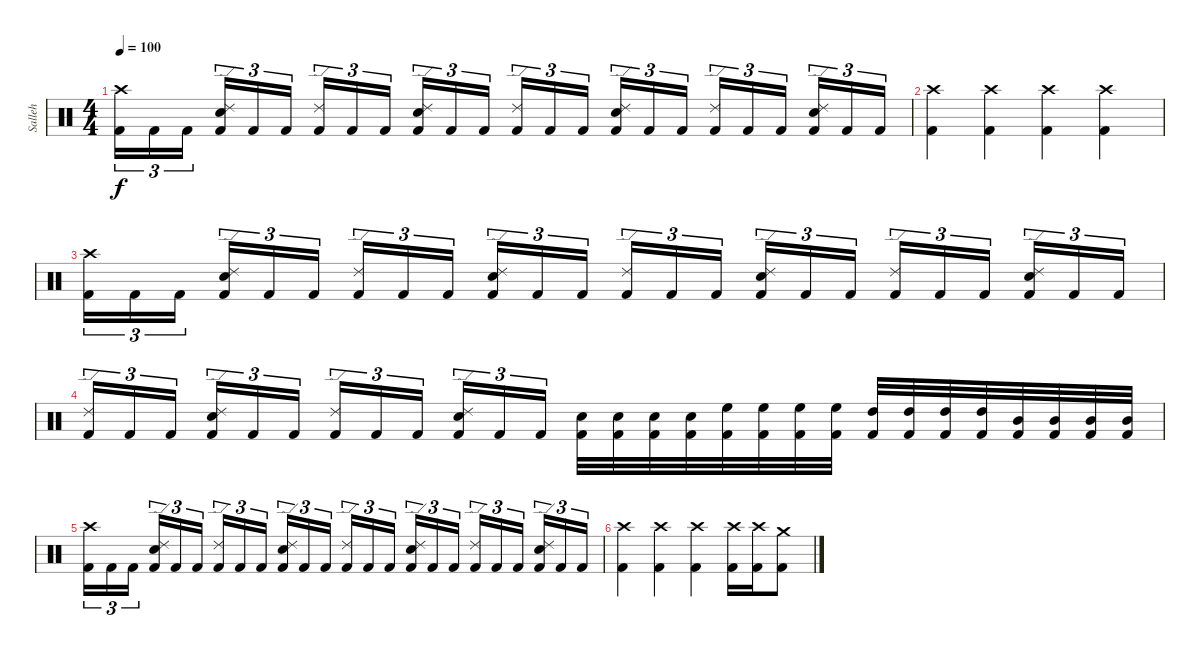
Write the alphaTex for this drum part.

\track ("Salleh" "Salleh") {instrument percussion}
\staff {score}
\articulation defaults
\ts (4 4)
\tempo 100
\clef neutral
\ks c
("Crash high (hit)" "Kick (hit) 2").16{tu (3 2) dy f} "Kick (hit) 2".16{tu (3 2)} "Kick (hit) 2".16{tu (3 2) beam splitsecondary} ("Ride (edge) 2" "Electric Snare (hit)" "Kick (hit) 2").16{tu (3 2)} "Kick (hit) 2".16{tu (3 2)} "Kick (hit) 2".16{tu (3 2)} ("Ride (edge) 2" "Kick (hit) 2").16{tu (3 2)} "Kick (hit) 2".16{tu (3 2)} "Kick (hit) 2".16{tu (3 2) beam splitsecondary} ("Ride (edge) 2" "Electric Snare (hit)" "Kick (hit) 2").16{tu (3 2)} "Kick (hit) 2".16{tu (3 2)} "Kick (hit) 2".16{tu (3 2)} ("Ride (edge) 2" "Kick (hit) 2").16{tu (3 2)} "Kick (hit) 2".16{tu (3 2)} "Kick (hit) 2".16{tu (3 2) beam splitsecondary} ("Ride (edge) 2" "Electric Snare (hit)" "Kick (hit) 2").16{tu (3 2)} "Kick (hit) 2".16{tu (3 2)} "Kick (hit) 2".16{tu (3 2)} ("Ride (edge) 2" "Kick (hit) 2").16{tu (3 2)} "Kick (hit) 2".16{tu (3 2)} "Kick (hit) 2".16{tu (3 2) beam splitsecondary} ("Ride (edge) 2" "Electric Snare (hit)" "Kick (hit) 2").16{tu (3 2)} "Kick (hit) 2".16{tu (3 2)} "Kick (hit) 2".16{tu (3 2)} |
("Crash high (hit)" "Kick (hit) 2").4 ("Crash high (hit)" "Kick (hit) 2").4 ("Crash high (hit)" "Kick (hit) 2").4 ("Crash high (hit)" "Kick (hit) 2").4 |
("Crash high (hit)" "Kick (hit) 2").16{tu (3 2)} "Kick (hit) 2".16{tu (3 2)} "Kick (hit) 2".16{tu (3 2) beam splitsecondary} ("Ride (edge) 2" "Electric Snare (hit)" "Kick (hit) 2").16{tu (3 2)} "Kick (hit) 2".16{tu (3 2)} "Kick (hit) 2".16{tu (3 2)} ("Ride (edge) 2" "Kick (hit) 2").16{tu (3 2)} "Kick (hit) 2".16{tu (3 2)} "Kick (hit) 2".16{tu (3 2) beam splitsecondary} ("Ride (edge) 2" "Electric Snare (hit)" "Kick (hit) 2").16{tu (3 2)} "Kick (hit) 2".16{tu (3 2)} "Kick (hit) 2".16{tu (3 2)} ("Ride (edge) 2" "Kick (hit) 2").16{tu (3 2)} "Kick (hit) 2".16{tu (3 2)} "Kick (hit) 2".16{tu (3 2) beam splitsecondary} ("Ride (edge) 2" "Electric Snare (hit)" "Kick (hit) 2").16{tu (3 2)} "Kick (hit) 2".16{tu (3 2)} "Kick (hit) 2".16{tu (3 2)} ("Ride (edge) 2" "Kick (hit) 2").16{tu (3 2)} "Kick (hit) 2".16{tu (3 2)} "Kick (hit) 2".16{tu (3 2) beam splitsecondary} ("Ride (edge) 2" "Electric Snare (hit)" "Kick (hit) 2").16{tu (3 2)} "Kick (hit) 2".16{tu (3 2)} "Kick (hit) 2".16{tu (3 2)} |
("Ride (edge) 2" "Kick (hit) 2").16{tu (3 2)} "Kick (hit) 2".16{tu (3 2)} "Kick (hit) 2".16{tu (3 2) beam splitsecondary} ("Ride (edge) 2" "Electric Snare (hit)" "Kick (hit) 2").16{tu (3 2)} "Kick (hit) 2".16{tu (3 2)} "Kick (hit) 2".16{tu (3 2)} ("Ride (edge) 2" "Kick (hit) 2").16{tu (3 2)} "Kick (hit) 2".16{tu (3 2)} "Kick (hit) 2".16{tu (3 2) beam splitsecondary} ("Ride (edge) 2" "Electric Snare (hit)" "Kick (hit) 2").16{tu (3 2)} "Kick (hit) 2".16{tu (3 2)} "Kick (hit) 2".16{tu (3 2)} ("Electric Snare (hit)" "Kick (hit) 2").32 ("Electric Snare (hit)" "Kick (hit) 2").32 ("Electric Snare (hit)" "Kick (hit) 2").32 ("Electric Snare (hit)" "Kick (hit) 2").32 ("High Floor Tom (hit)" "Kick (hit) 2").32 ("High Floor Tom (hit)" "Kick (hit) 2").32 ("High Floor Tom (hit)" "Kick (hit) 2").32 ("High Floor Tom (hit)" "Kick (hit) 2").32 ("High Tom (hit)" "Kick (hit) 2").32 ("High Tom (hit)" "Kick (hit) 2").32 ("High Tom (hit)" "Kick (hit) 2").32 ("High Tom (hit)" "Kick (hit) 2").32 ("Mid Tom (hit)" "Kick (hit) 2").32 ("Mid Tom (hit)" "Kick (hit) 2").32 ("Mid Tom (hit)" "Kick (hit) 2").32 ("Mid Tom (hit)" "Kick (hit) 2").32 |
("Crash high (hit)" "Kick (hit) 2").16{tu (3 2)} "Kick (hit) 2".16{tu (3 2)} "Kick (hit) 2".16{tu (3 2) beam splitsecondary} ("Ride (edge) 2" "Electric Snare (hit)" "Kick (hit) 2").16{tu (3 2)} "Kick (hit) 2".16{tu (3 2)} "Kick (hit) 2".16{tu (3 2)} ("Ride (edge) 2" "Kick (hit) 2").16{tu (3 2)} "Kick (hit) 2".16{tu (3 2)} "Kick (hit) 2".16{tu (3 2) beam splitsecondary} ("Ride (edge) 2" "Electric Snare (hit)" "Kick (hit) 2").16{tu (3 2)} "Kick (hit) 2".16{tu (3 2)} "Kick (hit) 2".16{tu (3 2)} ("Ride (edge) 2" "Kick (hit) 2").16{tu (3 2)} "Kick (hit) 2".16{tu (3 2)} "Kick (hit) 2".16{tu (3 2) beam splitsecondary} ("Ride (edge) 2" "Electric Snare (hit)" "Kick (hit) 2").16{tu (3 2)} "Kick (hit) 2".16{tu (3 2)} "Kick (hit) 2".16{tu (3 2)} ("Ride (edge) 2" "Kick (hit) 2").16{tu (3 2)} "Kick (hit) 2".16{tu (3 2)} "Kick (hit) 2".16{tu (3 2) beam splitsecondary} ("Ride (edge) 2" "Electric Snare (hit)" "Kick (hit) 2").16{tu (3 2)} "Kick (hit) 2".16{tu (3 2)} "Kick (hit) 2".16{tu (3 2)} |
("Crash high (hit)" "Kick (hit) 2").4 ("Crash high (hit)" "Kick (hit) 2").4 ("Crash high (hit)" "Kick (hit) 2").4 ("Crash high (hit)" "Kick (hit) 2").16 ("Crash high (hit)" "Kick (hit) 2").16 ("Crash medium (hit)" "Kick (hit) 2").8
